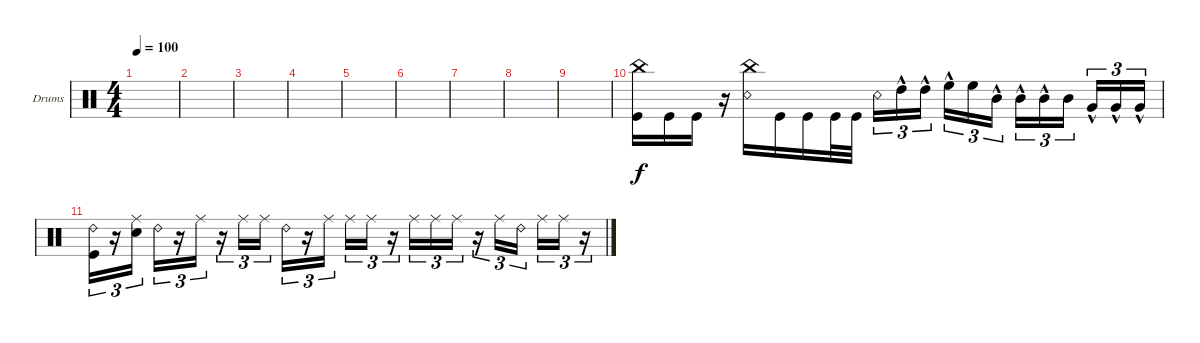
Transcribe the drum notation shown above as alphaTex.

\defaultSystemsLayout 4
\bracketExtendMode groupsimilarinstruments
\firstSystemTrackNameOrientation horizontal
\otherSystemsTrackNameOrientation horizontal
\track ("Drumkit" "Drums") {instrument percussion}
\staff {score}
\articulation defaults
\ts (4 4)
\tempo 100
\clef neutral
\ks c
|
|
|
|
|
|
|
|
|
("China (hit)" "Kick (hit)").16 "Kick (hit)".16 "Kick (hit)".16 r.16 ("Snare (rim shot)" "China (hit)").16 "Kick (hit)".16 "Kick (hit)".16 "Kick (hit)".32 "Kick (hit)".32 "Snare (rim shot)".16{tu (3 2)} "High Tom (hit)"{hac}.16{tu (3 2)} "High Tom (hit)"{hac}.16{tu (3 2)} "High Floor Tom (hit)"{hac}.16{tu (3 2)} "High Floor Tom (hit)".16{tu (3 2)} "Mid Tom (hit)"{hac}.16{tu (3 2)} "Mid Tom (hit)"{hac}.16{tu (3 2)} "Mid Tom (hit)"{hac}.16{tu (3 2)} "Mid Tom (hit)".16{tu (3 2)} "Very Low Tom (hit)"{hac}.16{tu (3 2)} "Very Low Tom (hit)"{hac}.16{tu (3 2)} "Very Low Tom (hit)"{hac}.16{tu (3 2)} |
("Ride (bell) 2" "Kick (hit)").16{tu (3 2)} r.16{tu (3 2)} ("Ride (middle)" "Snare (hit) 2").16{tu (3 2)} "Ride (bell) 2".16{tu (3 2)} r.16{tu (3 2)} "Ride (middle)".16{tu (3 2)} r.16{tu (3 2)} "Ride (middle)".16{tu (3 2)} "Ride (middle)".16{tu (3 2)} "Ride (bell) 2".16{tu (3 2)} r.16{tu (3 2)} "Ride (middle)".16{tu (3 2)} "Ride (middle)".16{tu (3 2)} "Ride (middle)".16{tu (3 2)} r.16{tu (3 2)} "Ride (middle)".16{tu (3 2)} "Ride (middle)".16{tu (3 2)} "Ride (middle)".16{tu (3 2)} r.16{tu (3 2)} "Ride (middle)".16{tu (3 2)} "Ride (bell) 2".16{tu (3 2)} "Ride (middle)".16{tu (3 2)} "Ride (middle)".16{tu (3 2)} r.16{tu (3 2)}
